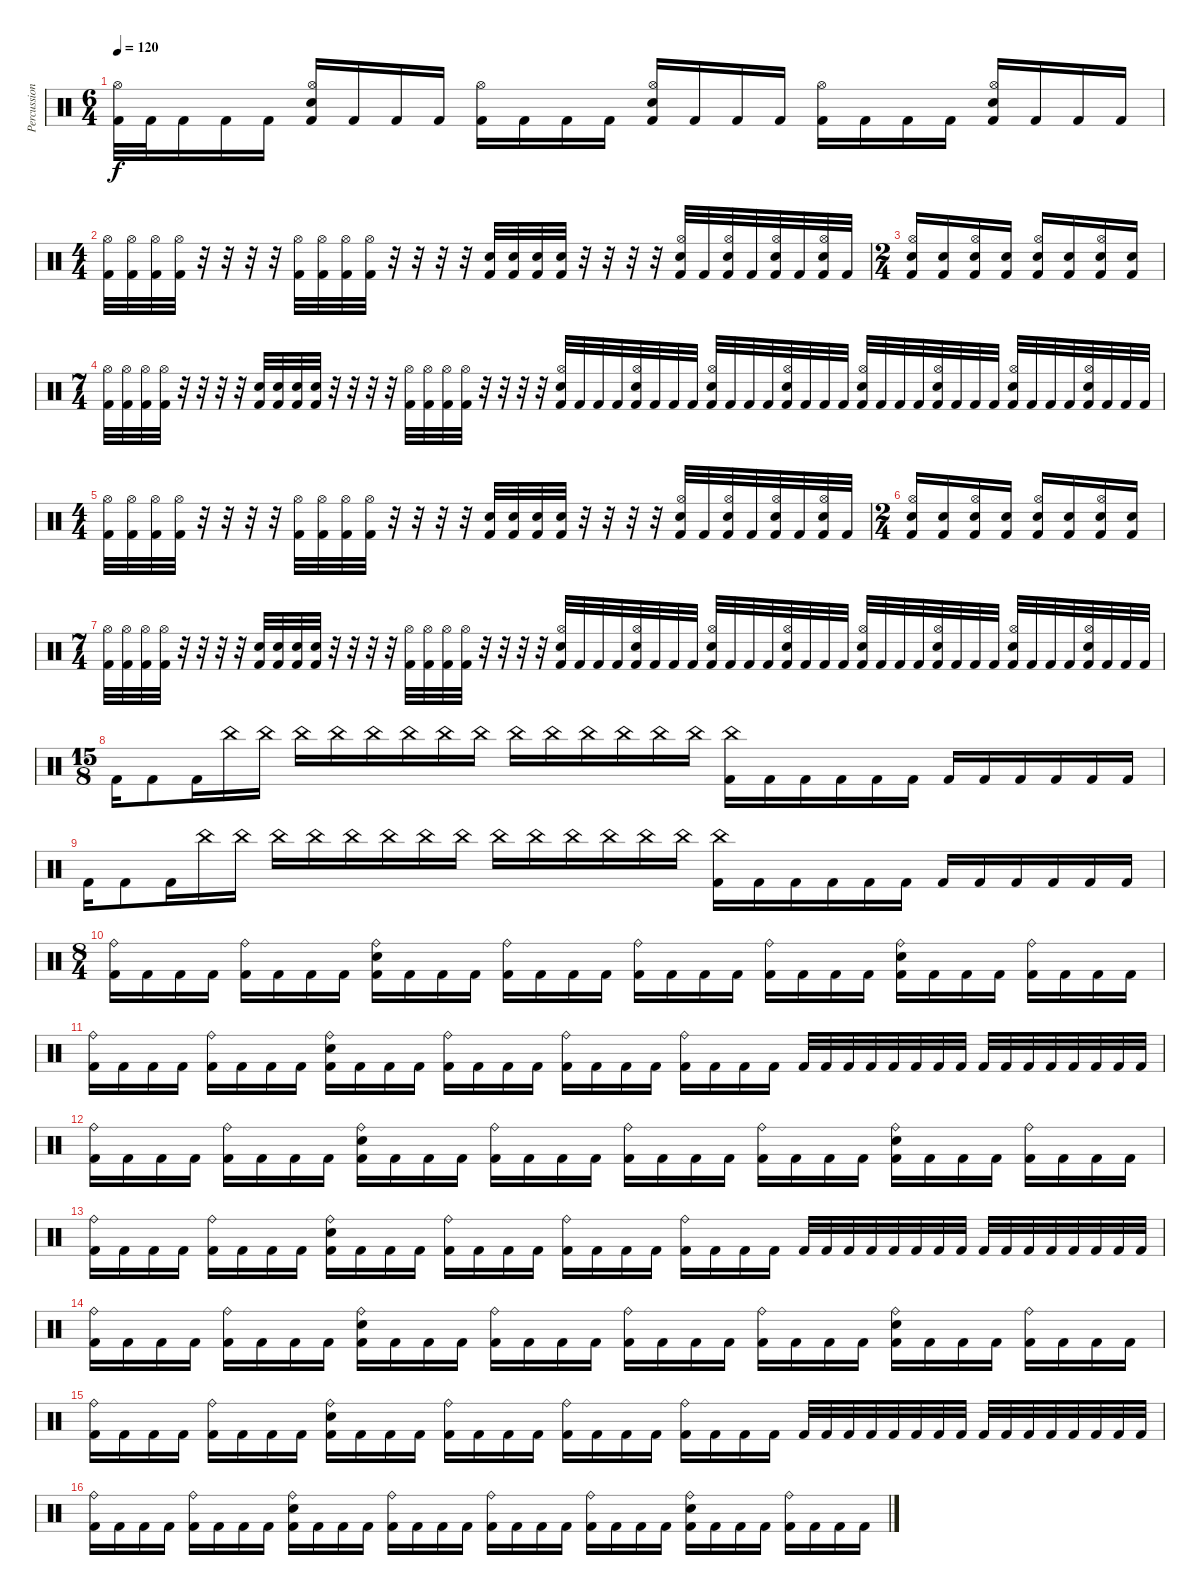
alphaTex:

\track ("Percussion" "Percussion") {instrument percussion}
\staff {score}
\articulation defaults
\ts (6 4)
\tempo 120
\clef neutral
\ks c
("Kick (hit) 2" "Hi-Hat (open)").32{dy f} "Kick (hit) 2".32 "Kick (hit) 2".16 "Kick (hit) 2".16 "Kick (hit) 2".16 ("Electric Snare (hit)" "Kick (hit) 2" "Hi-Hat (open)").16 "Kick (hit) 2".16 "Kick (hit) 2".16 "Kick (hit) 2".16 ("Kick (hit) 2" "Hi-Hat (open)").16 "Kick (hit) 2".16 "Kick (hit) 2".16 "Kick (hit) 2".16 ("Electric Snare (hit)" "Kick (hit) 2" "Hi-Hat (open)").16 "Kick (hit) 2".16 "Kick (hit) 2".16 "Kick (hit) 2".16 ("Kick (hit) 2" "Hi-Hat (open)").16 "Kick (hit) 2".16 "Kick (hit) 2".16 "Kick (hit) 2".16 ("Electric Snare (hit)" "Kick (hit) 2" "Hi-Hat (open)").16 "Kick (hit) 2".16 "Kick (hit) 2".16 "Kick (hit) 2".16 |
\ts (4 4)
("Hi-Hat (open)" "Kick (hit) 2").32 ("Hi-Hat (open)" "Kick (hit) 2").32 ("Hi-Hat (open)" "Kick (hit) 2").32 ("Hi-Hat (open)" "Kick (hit) 2").32 r.32 r.32 r.32 r.32 ("Hi-Hat (open)" "Kick (hit) 2").32 ("Hi-Hat (open)" "Kick (hit) 2").32 ("Hi-Hat (open)" "Kick (hit) 2").32 ("Hi-Hat (open)" "Kick (hit) 2").32 r.32 r.32 r.32 r.32 ("Electric Snare (hit)" "Kick (hit) 2").32 ("Electric Snare (hit)" "Kick (hit) 2").32 ("Electric Snare (hit)" "Kick (hit) 2").32 ("Electric Snare (hit)" "Kick (hit) 2").32 r.32 r.32 r.32 r.32 ("Electric Snare (hit)" "Hi-Hat (open)" "Kick (hit) 2").32 "Kick (hit) 2".32 ("Electric Snare (hit)" "Hi-Hat (open)" "Kick (hit) 2").32 "Kick (hit) 2".32 ("Electric Snare (hit)" "Hi-Hat (open)" "Kick (hit) 2").32 "Kick (hit) 2".32 ("Electric Snare (hit)" "Hi-Hat (open)" "Kick (hit) 2").32 "Kick (hit) 2".32 |
\ts (2 4)
("Hi-Hat (open)" "Electric Snare (hit)" "Kick (hit) 2").16 ("Electric Snare (hit)" "Kick (hit) 2").16 ("Hi-Hat (open)" "Electric Snare (hit)" "Kick (hit) 2").16 ("Electric Snare (hit)" "Kick (hit) 2").16 ("Hi-Hat (open)" "Electric Snare (hit)" "Kick (hit) 2").16 ("Electric Snare (hit)" "Kick (hit) 2").16 ("Hi-Hat (open)" "Electric Snare (hit)" "Kick (hit) 2").16 ("Electric Snare (hit)" "Kick (hit) 2").16 |
\ts (7 4)
("Hi-Hat (open)" "Kick (hit) 2").32 ("Hi-Hat (open)" "Kick (hit) 2").32 ("Hi-Hat (open)" "Kick (hit) 2").32 ("Hi-Hat (open)" "Kick (hit) 2").32 r.32 r.32 r.32 r.32 ("Electric Snare (hit)" "Kick (hit) 2").32 ("Electric Snare (hit)" "Kick (hit) 2").32 ("Electric Snare (hit)" "Kick (hit) 2").32 ("Electric Snare (hit)" "Kick (hit) 2").32 r.32 r.32 r.32 r.32 ("Hi-Hat (open)" "Kick (hit) 2").32 ("Hi-Hat (open)" "Kick (hit) 2").32 ("Hi-Hat (open)" "Kick (hit) 2").32 ("Hi-Hat (open)" "Kick (hit) 2").32 r.32 r.32 r.32 r.32 ("Electric Snare (hit)" "Hi-Hat (open)" "Kick (hit) 2").32 "Kick (hit) 2".32 "Kick (hit) 2".32 "Kick (hit) 2".32 ("Electric Snare (hit)" "Hi-Hat (open)" "Kick (hit) 2").32 "Kick (hit) 2".32 "Kick (hit) 2".32 "Kick (hit) 2".32 ("Electric Snare (hit)" "Hi-Hat (open)" "Kick (hit) 2").32 "Kick (hit) 2".32 "Kick (hit) 2".32 "Kick (hit) 2".32 ("Electric Snare (hit)" "Hi-Hat (open)" "Kick (hit) 2").32 "Kick (hit) 2".32 "Kick (hit) 2".32 "Kick (hit) 2".32 ("Electric Snare (hit)" "Hi-Hat (open)" "Kick (hit) 2").32 "Kick (hit) 2".32 "Kick (hit) 2".32 "Kick (hit) 2".32 ("Electric Snare (hit)" "Hi-Hat (open)" "Kick (hit) 2").32 "Kick (hit) 2".32 "Kick (hit) 2".32 "Kick (hit) 2".32 ("Electric Snare (hit)" "Hi-Hat (open)" "Kick (hit) 2").32 "Kick (hit) 2".32 "Kick (hit) 2".32 "Kick (hit) 2".32 ("Electric Snare (hit)" "Hi-Hat (open)" "Kick (hit) 2").32 "Kick (hit) 2".32 "Kick (hit) 2".32 "Kick (hit) 2".32 |
\ts (4 4)
("Hi-Hat (open)" "Kick (hit) 2").32 ("Hi-Hat (open)" "Kick (hit) 2").32 ("Hi-Hat (open)" "Kick (hit) 2").32 ("Hi-Hat (open)" "Kick (hit) 2").32 r.32 r.32 r.32 r.32 ("Hi-Hat (open)" "Kick (hit) 2").32 ("Hi-Hat (open)" "Kick (hit) 2").32 ("Hi-Hat (open)" "Kick (hit) 2").32 ("Hi-Hat (open)" "Kick (hit) 2").32 r.32 r.32 r.32 r.32 ("Electric Snare (hit)" "Kick (hit) 2").32 ("Electric Snare (hit)" "Kick (hit) 2").32 ("Electric Snare (hit)" "Kick (hit) 2").32 ("Electric Snare (hit)" "Kick (hit) 2").32 r.32 r.32 r.32 r.32 ("Electric Snare (hit)" "Hi-Hat (open)" "Kick (hit) 2").32 "Kick (hit) 2".32 ("Electric Snare (hit)" "Hi-Hat (open)" "Kick (hit) 2").32 "Kick (hit) 2".32 ("Electric Snare (hit)" "Hi-Hat (open)" "Kick (hit) 2").32 "Kick (hit) 2".32 ("Electric Snare (hit)" "Hi-Hat (open)" "Kick (hit) 2").32 "Kick (hit) 2".32 |
\ts (2 4)
("Hi-Hat (open)" "Electric Snare (hit)" "Kick (hit) 2").16 ("Electric Snare (hit)" "Kick (hit) 2").16 ("Hi-Hat (open)" "Electric Snare (hit)" "Kick (hit) 2").16 ("Electric Snare (hit)" "Kick (hit) 2").16 ("Hi-Hat (open)" "Electric Snare (hit)" "Kick (hit) 2").16 ("Electric Snare (hit)" "Kick (hit) 2").16 ("Hi-Hat (open)" "Electric Snare (hit)" "Kick (hit) 2").16 ("Electric Snare (hit)" "Kick (hit) 2").16 |
\ts (7 4)
("Hi-Hat (open)" "Kick (hit) 2").32 ("Hi-Hat (open)" "Kick (hit) 2").32 ("Hi-Hat (open)" "Kick (hit) 2").32 ("Hi-Hat (open)" "Kick (hit) 2").32 r.32 r.32 r.32 r.32 ("Electric Snare (hit)" "Kick (hit) 2").32 ("Electric Snare (hit)" "Kick (hit) 2").32 ("Electric Snare (hit)" "Kick (hit) 2").32 ("Electric Snare (hit)" "Kick (hit) 2").32 r.32 r.32 r.32 r.32 ("Hi-Hat (open)" "Kick (hit) 2").32 ("Hi-Hat (open)" "Kick (hit) 2").32 ("Hi-Hat (open)" "Kick (hit) 2").32 ("Hi-Hat (open)" "Kick (hit) 2").32 r.32 r.32 r.32 r.32 ("Electric Snare (hit)" "Hi-Hat (open)" "Kick (hit) 2").32 "Kick (hit) 2".32 "Kick (hit) 2".32 "Kick (hit) 2".32 ("Electric Snare (hit)" "Hi-Hat (open)" "Kick (hit) 2").32 "Kick (hit) 2".32 "Kick (hit) 2".32 "Kick (hit) 2".32 ("Electric Snare (hit)" "Hi-Hat (open)" "Kick (hit) 2").32 "Kick (hit) 2".32 "Kick (hit) 2".32 "Kick (hit) 2".32 ("Electric Snare (hit)" "Hi-Hat (open)" "Kick (hit) 2").32 "Kick (hit) 2".32 "Kick (hit) 2".32 "Kick (hit) 2".32 ("Electric Snare (hit)" "Hi-Hat (open)" "Kick (hit) 2").32 "Kick (hit) 2".32 "Kick (hit) 2".32 "Kick (hit) 2".32 ("Electric Snare (hit)" "Hi-Hat (open)" "Kick (hit) 2").32 "Kick (hit) 2".32 "Kick (hit) 2".32 "Kick (hit) 2".32 ("Electric Snare (hit)" "Hi-Hat (open)" "Kick (hit) 2").32 "Kick (hit) 2".32 "Kick (hit) 2".32 "Kick (hit) 2".32 ("Electric Snare (hit)" "Hi-Hat (open)" "Kick (hit) 2").32 "Kick (hit) 2".32 "Kick (hit) 2".32 "Kick (hit) 2".32 |
\ts (15 8)
"Kick (hit) 2".16 "Kick (hit) 2".8 "Kick (hit) 2".16 "China (hit)".16 "China (hit)".16 "China (hit)".16 "China (hit)".16 "China (hit)".16 "China (hit)".16 "China (hit)".16 "China (hit)".16 "China (hit)".16 "China (hit)".16 "China (hit)".16 "China (hit)".16 "China (hit)".16 "China (hit)".16 ("China (hit)" "Kick (hit) 2").16 "Kick (hit) 2".16 "Kick (hit) 2".16 "Kick (hit) 2".16 "Kick (hit) 2".16 "Kick (hit) 2".16 "Kick (hit) 2".16 "Kick (hit) 2".16 "Kick (hit) 2".16 "Kick (hit) 2".16 "Kick (hit) 2".16 "Kick (hit) 2".16 |
"Kick (hit) 2".16 "Kick (hit) 2".8 "Kick (hit) 2".16 "China (hit)".16 "China (hit)".16 "China (hit)".16 "China (hit)".16 "China (hit)".16 "China (hit)".16 "China (hit)".16 "China (hit)".16 "China (hit)".16 "China (hit)".16 "China (hit)".16 "China (hit)".16 "China (hit)".16 "China (hit)".16 ("China (hit)" "Kick (hit) 2").16 "Kick (hit) 2".16 "Kick (hit) 2".16 "Kick (hit) 2".16 "Kick (hit) 2".16 "Kick (hit) 2".16 "Kick (hit) 2".16 "Kick (hit) 2".16 "Kick (hit) 2".16 "Kick (hit) 2".16 "Kick (hit) 2".16 "Kick (hit) 2".16 |
\ts (8 4)
("Ride (bell)" "Kick (hit) 2").16 "Kick (hit) 2".16 "Kick (hit) 2".16 "Kick (hit) 2".16 ("Ride (bell)" "Kick (hit) 2").16 "Kick (hit) 2".16 "Kick (hit) 2".16 "Kick (hit) 2".16 ("Ride (bell)" "Kick (hit) 2" "Electric Snare (hit)").16 "Kick (hit) 2".16 "Kick (hit) 2".16 "Kick (hit) 2".16 ("Ride (bell)" "Kick (hit) 2").16 "Kick (hit) 2".16 "Kick (hit) 2".16 "Kick (hit) 2".16 ("Ride (bell)" "Kick (hit) 2").16 "Kick (hit) 2".16 "Kick (hit) 2".16 "Kick (hit) 2".16 ("Ride (bell)" "Kick (hit) 2").16 "Kick (hit) 2".16 "Kick (hit) 2".16 "Kick (hit) 2".16 ("Ride (bell)" "Kick (hit) 2" "Electric Snare (hit)").16 "Kick (hit) 2".16 "Kick (hit) 2".16 "Kick (hit) 2".16 ("Ride (bell)" "Kick (hit) 2").16 "Kick (hit) 2".16 "Kick (hit) 2".16 "Kick (hit) 2".16 |
("Ride (bell)" "Kick (hit) 2").16 "Kick (hit) 2".16 "Kick (hit) 2".16 "Kick (hit) 2".16 ("Ride (bell)" "Kick (hit) 2").16 "Kick (hit) 2".16 "Kick (hit) 2".16 "Kick (hit) 2".16 ("Ride (bell)" "Kick (hit) 2" "Electric Snare (hit)").16 "Kick (hit) 2".16 "Kick (hit) 2".16 "Kick (hit) 2".16 ("Ride (bell)" "Kick (hit) 2").16 "Kick (hit) 2".16 "Kick (hit) 2".16 "Kick (hit) 2".16 ("Ride (bell)" "Kick (hit) 2").16 "Kick (hit) 2".16 "Kick (hit) 2".16 "Kick (hit) 2".16 ("Ride (bell)" "Kick (hit) 2").16 "Kick (hit) 2".16 "Kick (hit) 2".16 "Kick (hit) 2".16 "Kick (hit) 2".32 "Kick (hit) 2".32 "Kick (hit) 2".32 "Kick (hit) 2".32 "Kick (hit) 2".32 "Kick (hit) 2".32 "Kick (hit) 2".32 "Kick (hit) 2".32 "Kick (hit) 2".32 "Kick (hit) 2".32 "Kick (hit) 2".32 "Kick (hit) 2".32 "Kick (hit) 2".32 "Kick (hit) 2".32 "Kick (hit) 2".32 "Kick (hit) 2".32 |
("Ride (bell)" "Kick (hit) 2").16 "Kick (hit) 2".16 "Kick (hit) 2".16 "Kick (hit) 2".16 ("Ride (bell)" "Kick (hit) 2").16 "Kick (hit) 2".16 "Kick (hit) 2".16 "Kick (hit) 2".16 ("Ride (bell)" "Kick (hit) 2" "Electric Snare (hit)").16 "Kick (hit) 2".16 "Kick (hit) 2".16 "Kick (hit) 2".16 ("Ride (bell)" "Kick (hit) 2").16 "Kick (hit) 2".16 "Kick (hit) 2".16 "Kick (hit) 2".16 ("Ride (bell)" "Kick (hit) 2").16 "Kick (hit) 2".16 "Kick (hit) 2".16 "Kick (hit) 2".16 ("Ride (bell)" "Kick (hit) 2").16 "Kick (hit) 2".16 "Kick (hit) 2".16 "Kick (hit) 2".16 ("Ride (bell)" "Kick (hit) 2" "Electric Snare (hit)").16 "Kick (hit) 2".16 "Kick (hit) 2".16 "Kick (hit) 2".16 ("Ride (bell)" "Kick (hit) 2").16 "Kick (hit) 2".16 "Kick (hit) 2".16 "Kick (hit) 2".16 |
("Ride (bell)" "Kick (hit) 2").16 "Kick (hit) 2".16 "Kick (hit) 2".16 "Kick (hit) 2".16 ("Ride (bell)" "Kick (hit) 2").16 "Kick (hit) 2".16 "Kick (hit) 2".16 "Kick (hit) 2".16 ("Ride (bell)" "Kick (hit) 2" "Electric Snare (hit)").16 "Kick (hit) 2".16 "Kick (hit) 2".16 "Kick (hit) 2".16 ("Ride (bell)" "Kick (hit) 2").16 "Kick (hit) 2".16 "Kick (hit) 2".16 "Kick (hit) 2".16 ("Ride (bell)" "Kick (hit) 2").16 "Kick (hit) 2".16 "Kick (hit) 2".16 "Kick (hit) 2".16 ("Ride (bell)" "Kick (hit) 2").16 "Kick (hit) 2".16 "Kick (hit) 2".16 "Kick (hit) 2".16 "Kick (hit) 2".32 "Kick (hit) 2".32 "Kick (hit) 2".32 "Kick (hit) 2".32 "Kick (hit) 2".32 "Kick (hit) 2".32 "Kick (hit) 2".32 "Kick (hit) 2".32 "Kick (hit) 2".32 "Kick (hit) 2".32 "Kick (hit) 2".32 "Kick (hit) 2".32 "Kick (hit) 2".32 "Kick (hit) 2".32 "Kick (hit) 2".32 "Kick (hit) 2".32 |
("Ride (bell)" "Kick (hit) 2").16 "Kick (hit) 2".16 "Kick (hit) 2".16 "Kick (hit) 2".16 ("Ride (bell)" "Kick (hit) 2").16 "Kick (hit) 2".16 "Kick (hit) 2".16 "Kick (hit) 2".16 ("Ride (bell)" "Kick (hit) 2" "Electric Snare (hit)").16 "Kick (hit) 2".16 "Kick (hit) 2".16 "Kick (hit) 2".16 ("Ride (bell)" "Kick (hit) 2").16 "Kick (hit) 2".16 "Kick (hit) 2".16 "Kick (hit) 2".16 ("Ride (bell)" "Kick (hit) 2").16 "Kick (hit) 2".16 "Kick (hit) 2".16 "Kick (hit) 2".16 ("Ride (bell)" "Kick (hit) 2").16 "Kick (hit) 2".16 "Kick (hit) 2".16 "Kick (hit) 2".16 ("Ride (bell)" "Kick (hit) 2" "Electric Snare (hit)").16 "Kick (hit) 2".16 "Kick (hit) 2".16 "Kick (hit) 2".16 ("Ride (bell)" "Kick (hit) 2").16 "Kick (hit) 2".16 "Kick (hit) 2".16 "Kick (hit) 2".16 |
("Ride (bell)" "Kick (hit) 2").16 "Kick (hit) 2".16 "Kick (hit) 2".16 "Kick (hit) 2".16 ("Ride (bell)" "Kick (hit) 2").16 "Kick (hit) 2".16 "Kick (hit) 2".16 "Kick (hit) 2".16 ("Ride (bell)" "Kick (hit) 2" "Electric Snare (hit)").16 "Kick (hit) 2".16 "Kick (hit) 2".16 "Kick (hit) 2".16 ("Ride (bell)" "Kick (hit) 2").16 "Kick (hit) 2".16 "Kick (hit) 2".16 "Kick (hit) 2".16 ("Ride (bell)" "Kick (hit) 2").16 "Kick (hit) 2".16 "Kick (hit) 2".16 "Kick (hit) 2".16 ("Ride (bell)" "Kick (hit) 2").16 "Kick (hit) 2".16 "Kick (hit) 2".16 "Kick (hit) 2".16 "Kick (hit) 2".32 "Kick (hit) 2".32 "Kick (hit) 2".32 "Kick (hit) 2".32 "Kick (hit) 2".32 "Kick (hit) 2".32 "Kick (hit) 2".32 "Kick (hit) 2".32 "Kick (hit) 2".32 "Kick (hit) 2".32 "Kick (hit) 2".32 "Kick (hit) 2".32 "Kick (hit) 2".32 "Kick (hit) 2".32 "Kick (hit) 2".32 "Kick (hit) 2".32 |
("Ride (bell)" "Kick (hit) 2").16 "Kick (hit) 2".16 "Kick (hit) 2".16 "Kick (hit) 2".16 ("Ride (bell)" "Kick (hit) 2").16 "Kick (hit) 2".16 "Kick (hit) 2".16 "Kick (hit) 2".16 ("Ride (bell)" "Kick (hit) 2" "Electric Snare (hit)").16 "Kick (hit) 2".16 "Kick (hit) 2".16 "Kick (hit) 2".16 ("Ride (bell)" "Kick (hit) 2").16 "Kick (hit) 2".16 "Kick (hit) 2".16 "Kick (hit) 2".16 ("Ride (bell)" "Kick (hit) 2").16 "Kick (hit) 2".16 "Kick (hit) 2".16 "Kick (hit) 2".16 ("Ride (bell)" "Kick (hit) 2").16 "Kick (hit) 2".16 "Kick (hit) 2".16 "Kick (hit) 2".16 ("Ride (bell)" "Kick (hit) 2" "Electric Snare (hit)").16 "Kick (hit) 2".16 "Kick (hit) 2".16 "Kick (hit) 2".16 ("Ride (bell)" "Kick (hit) 2").16 "Kick (hit) 2".16 "Kick (hit) 2".16 "Kick (hit) 2".16
